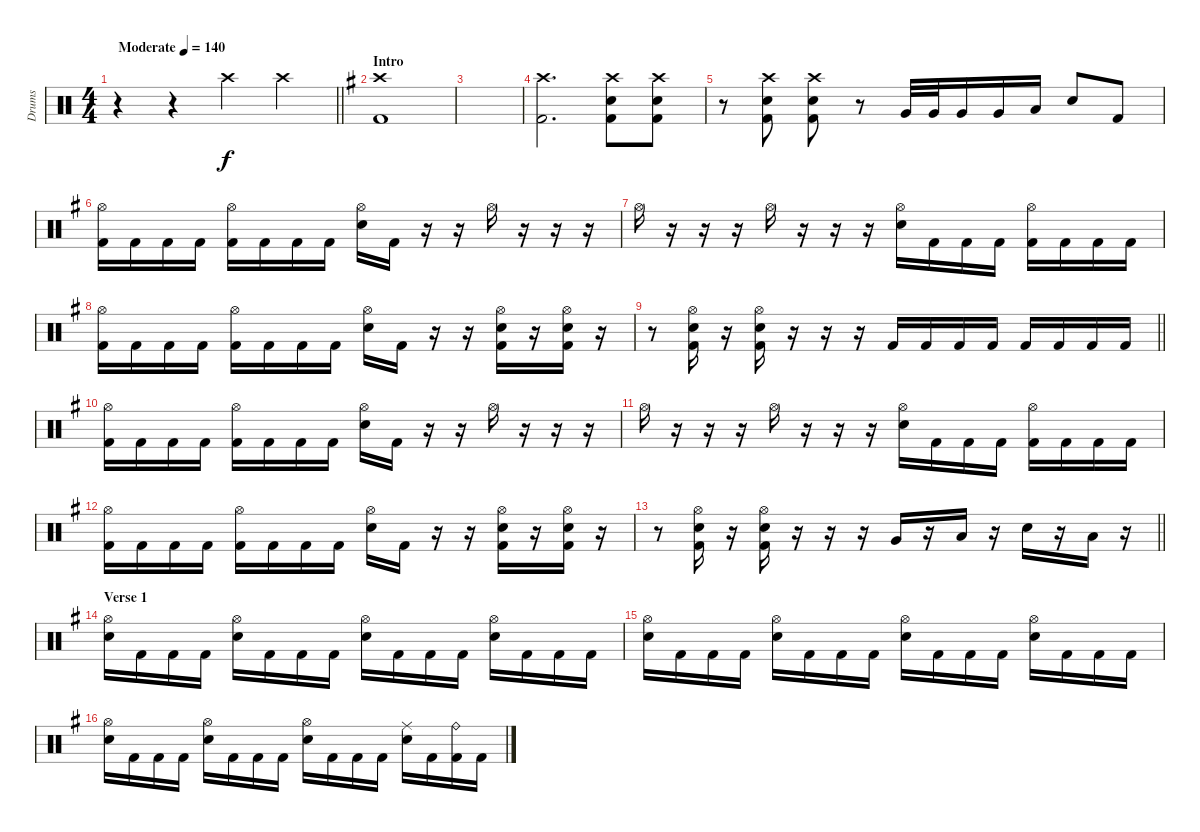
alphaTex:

\track ("Drums" "Drums") {instrument percussion}
\staff {score}
\articulation defaults
\ts (4 4)
\tempo (140 "Moderate")
\clef neutral
\barLineRight lightlight
\ks c
r.4{dy f} r.4 "Crash high (hit)".4 "Crash high (hit)".4 |
\section ("" "Intro")
\ks g
("Crash high (hit)" "Kick (hit) 2").1 |
|
("Crash high (hit)" "Kick (hit) 2").2{d} ("Crash high (hit)" "Electric Snare (hit)" "Kick (hit) 2").8 ("Crash high (hit)" "Electric Snare (hit)" "Kick (hit) 2").8 |
r.8 ("Crash high (hit)" "Electric Snare (hit)" "Kick (hit) 2").8 ("Crash high (hit)" "Electric Snare (hit)" "Kick (hit) 2").8 r.8 "Very Low Tom (hit)".32 "Very Low Tom (hit)".32 "Very Low Tom (hit)".16 "Very Low Tom (hit)".16 "Low Floor Tom (hit)".16 "Electric Snare (hit)".8 "Kick (hit) 2".8 |
("Hi-Hat (open)" "Kick (hit) 2").16 "Kick (hit) 2".16 "Kick (hit) 2".16 "Kick (hit) 2".16 ("Hi-Hat (open)" "Kick (hit) 2").16 "Kick (hit) 2".16 "Kick (hit) 2".16 "Kick (hit) 2".16 ("Hi-Hat (open)" "Electric Snare (hit)").16 "Kick (hit) 2".16 r.16 r.16 "Hi-Hat (open)".16 r.16 r.16 r.16 |
"Hi-Hat (open)".16 r.16 r.16 r.16 "Hi-Hat (open)".16 r.16 r.16 r.16 ("Hi-Hat (open)" "Electric Snare (hit)").16 "Kick (hit) 2".16 "Kick (hit) 2".16 "Kick (hit) 2".16 ("Hi-Hat (open)" "Kick (hit) 2").16 "Kick (hit) 2".16 "Kick (hit) 2".16 "Kick (hit) 2".16 |
("Hi-Hat (open)" "Kick (hit) 2").16 "Kick (hit) 2".16 "Kick (hit) 2".16 "Kick (hit) 2".16 ("Hi-Hat (open)" "Kick (hit) 2").16 "Kick (hit) 2".16 "Kick (hit) 2".16 "Kick (hit) 2".16 ("Hi-Hat (open)" "Electric Snare (hit)").16 "Kick (hit) 2".16 r.16 r.16 ("Hi-Hat (open)" "Electric Snare (hit)" "Kick (hit) 2").16 r.16 ("Hi-Hat (open)" "Electric Snare (hit)" "Kick (hit) 2").16 r.16 |
\barLineRight lightlight
r.8 ("Hi-Hat (open)" "Electric Snare (hit)" "Kick (hit) 2").16 r.16 ("Hi-Hat (open)" "Electric Snare (hit)" "Kick (hit) 2").16 r.16 r.16 r.16 "Kick (hit) 2".16 "Kick (hit) 2".16 "Kick (hit) 2".16 "Kick (hit) 2".16 "Kick (hit) 2".16 "Kick (hit) 2".16 "Kick (hit) 2".16 "Kick (hit) 2".16 |
("Hi-Hat (open)" "Kick (hit) 2").16 "Kick (hit) 2".16 "Kick (hit) 2".16 "Kick (hit) 2".16 ("Hi-Hat (open)" "Kick (hit) 2").16 "Kick (hit) 2".16 "Kick (hit) 2".16 "Kick (hit) 2".16 ("Hi-Hat (open)" "Electric Snare (hit)").16 "Kick (hit) 2".16 r.16 r.16 "Hi-Hat (open)".16 r.16 r.16 r.16 |
"Hi-Hat (open)".16 r.16 r.16 r.16 "Hi-Hat (open)".16 r.16 r.16 r.16 ("Hi-Hat (open)" "Electric Snare (hit)").16 "Kick (hit) 2".16 "Kick (hit) 2".16 "Kick (hit) 2".16 ("Hi-Hat (open)" "Kick (hit) 2").16 "Kick (hit) 2".16 "Kick (hit) 2".16 "Kick (hit) 2".16 |
("Hi-Hat (open)" "Kick (hit) 2").16 "Kick (hit) 2".16 "Kick (hit) 2".16 "Kick (hit) 2".16 ("Hi-Hat (open)" "Kick (hit) 2").16 "Kick (hit) 2".16 "Kick (hit) 2".16 "Kick (hit) 2".16 ("Hi-Hat (open)" "Electric Snare (hit)").16 "Kick (hit) 2".16 r.16 r.16 ("Hi-Hat (open)" "Electric Snare (hit)" "Kick (hit) 2").16 r.16 ("Hi-Hat (open)" "Electric Snare (hit)" "Kick (hit) 2").16 r.16 |
\barLineRight lightlight
r.8 ("Hi-Hat (open)" "Electric Snare (hit)" "Kick (hit) 2").16 r.16 ("Hi-Hat (open)" "Electric Snare (hit)" "Kick (hit) 2").16 r.16 r.16 r.16 "Very Low Tom (hit)".16 r.16 "Low Floor Tom (hit)".16 r.16 "Electric Snare (hit)".16 r.16 "Low Floor Tom (hit)".16 r.16 |
\section ("" "Verse 1")
("Hi-Hat (open)" "Electric Snare (hit)").16 "Kick (hit) 2".16 "Kick (hit) 2".16 "Kick (hit) 2".16 ("Hi-Hat (open)" "Electric Snare (hit)").16 "Kick (hit) 2".16 "Kick (hit) 2".16 "Kick (hit) 2".16 ("Hi-Hat (open)" "Electric Snare (hit)").16 "Kick (hit) 2".16 "Kick (hit) 2".16 "Kick (hit) 2".16 ("Hi-Hat (open)" "Electric Snare (hit)").16 "Kick (hit) 2".16 "Kick (hit) 2".16 "Kick (hit) 2".16 |
("Hi-Hat (open)" "Electric Snare (hit)").16 "Kick (hit) 2".16 "Kick (hit) 2".16 "Kick (hit) 2".16 ("Hi-Hat (open)" "Electric Snare (hit)").16 "Kick (hit) 2".16 "Kick (hit) 2".16 "Kick (hit) 2".16 ("Hi-Hat (open)" "Electric Snare (hit)").16 "Kick (hit) 2".16 "Kick (hit) 2".16 "Kick (hit) 2".16 ("Hi-Hat (open)" "Electric Snare (hit)").16 "Kick (hit) 2".16 "Kick (hit) 2".16 "Kick (hit) 2".16 |
("Hi-Hat (open)" "Electric Snare (hit)").16 "Kick (hit) 2".16 "Kick (hit) 2".16 "Kick (hit) 2".16 ("Hi-Hat (open)" "Electric Snare (hit)").16 "Kick (hit) 2".16 "Kick (hit) 2".16 "Kick (hit) 2".16 ("Hi-Hat (open)" "Electric Snare (hit)").16 "Kick (hit) 2".16 "Kick (hit) 2".16 "Kick (hit) 2".16 ("Ride (middle)" "Electric Snare (hit)").16 "Kick (hit) 2".16 ("Ride (bell)" "Kick (hit) 2").16 "Kick (hit) 2".16
